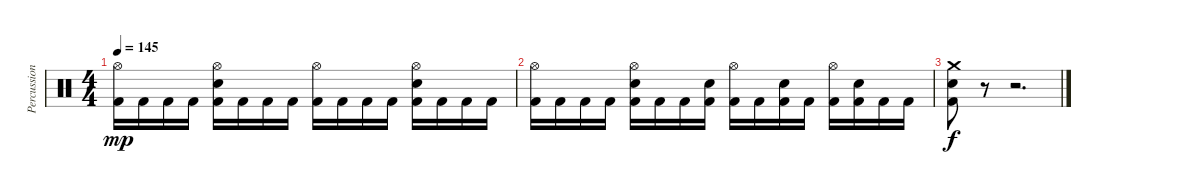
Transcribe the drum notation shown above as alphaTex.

\track ("Percussion" "Percussion") {instrument percussion}
\staff {score}
\articulation defaults
\ts (4 4)
\tempo 145
\clef neutral
\ks c
("Hi-Hat (open)" "Kick (hit) 2").16{dy mp} "Kick (hit) 2".16 "Kick (hit) 2".16 "Kick (hit) 2".16 ("Hi-Hat (open)" "Electric Snare (hit)" "Kick (hit) 2").16 "Kick (hit) 2".16 "Kick (hit) 2".16 "Kick (hit) 2".16 ("Hi-Hat (open)" "Kick (hit) 2").16 "Kick (hit) 2".16 "Kick (hit) 2".16 "Kick (hit) 2".16 ("Hi-Hat (open)" "Electric Snare (hit)" "Kick (hit) 2").16 "Kick (hit) 2".16 "Kick (hit) 2".16 "Kick (hit) 2".16 |
("Hi-Hat (open)" "Kick (hit) 2").16 "Kick (hit) 2".16 "Kick (hit) 2".16 "Kick (hit) 2".16 ("Hi-Hat (open)" "Electric Snare (hit)" "Kick (hit) 2").16 "Kick (hit) 2".16 "Kick (hit) 2".16 ("Electric Snare (hit)" "Kick (hit) 2").16 ("Hi-Hat (open)" "Kick (hit) 2").16 "Kick (hit) 2".16 ("Electric Snare (hit)" "Kick (hit) 2").16 "Kick (hit) 2".16 ("Hi-Hat (open)" "Kick (hit) 2").16 ("Electric Snare (hit)" "Kick (hit) 2").16 "Kick (hit) 2".16 "Kick (hit) 2".16 |
("Crash medium (hit)" "Electric Snare (hit)" "Kick (hit) 2").8{dy f} r.8 r.2{d}
